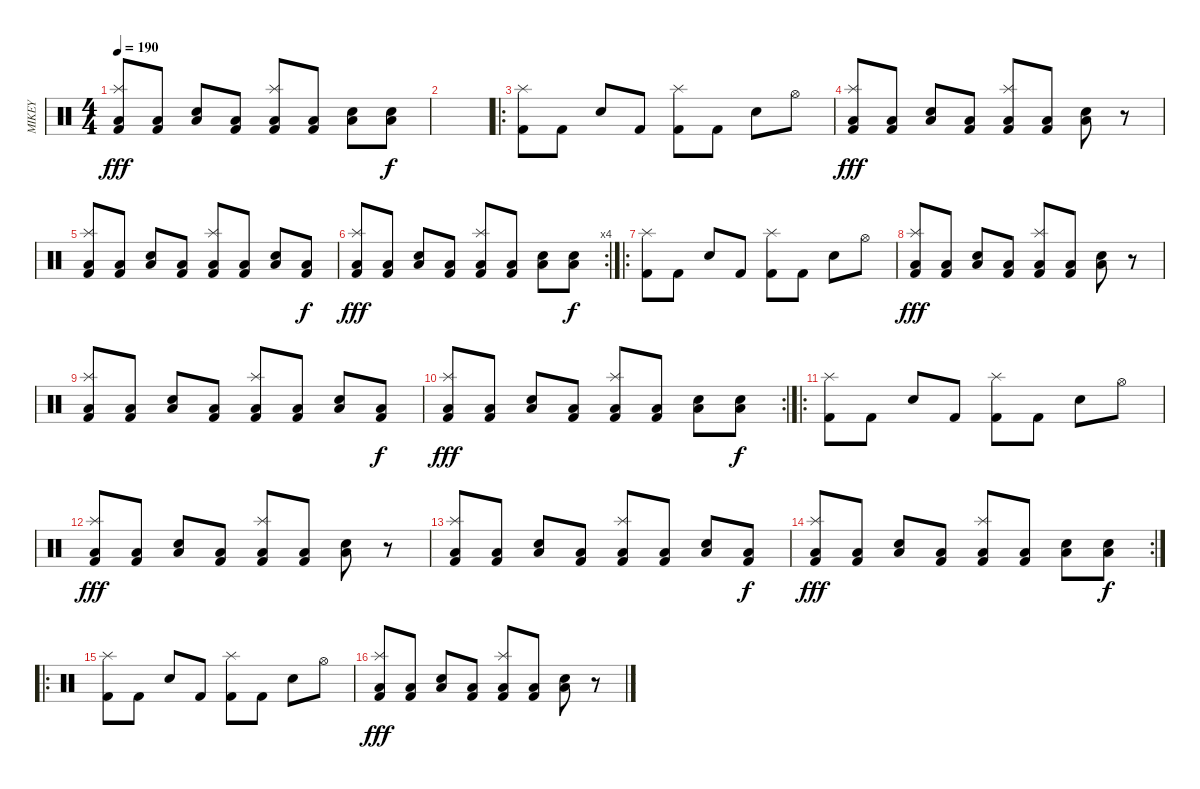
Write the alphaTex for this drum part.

\track ("MIKEY" "MIKEY") {instrument percussion}
\staff {score}
\articulation defaults
\ts (4 4)
\tempo 190
\clef neutral
\ks c
("Low Floor Tom (hit)" "Splash (hit)" "Kick (hit) 2").8{dy fff} ("Low Floor Tom (hit)" "Kick (hit) 2").8 ("Low Floor Tom (hit)" "Snare (hit) 2").8 ("Low Floor Tom (hit)" "Kick (hit) 2").8 ("Low Floor Tom (hit)" "Splash (hit)" "Kick (hit) 2").8 ("Low Floor Tom (hit)" "Kick (hit) 2").8 ("Low Floor Tom (hit)" "Snare (hit) 2").8 ("Low Floor Tom (hit)" "Snare (hit) 2").8{dy f} |
|
\ro
("Splash (hit)" "Kick (hit) 2").8 "Kick (hit) 2".8 "Snare (hit) 2".8 "Kick (hit) 2".8 ("Splash (hit)" "Kick (hit) 2").8 "Kick (hit) 2".8 "Snare (hit) 2".8 "Hi-Hat (open)".8 |
("Low Floor Tom (hit)" "Splash (hit)" "Kick (hit) 2").8{dy fff} ("Low Floor Tom (hit)" "Kick (hit) 2").8 ("Low Floor Tom (hit)" "Snare (hit) 2").8 ("Low Floor Tom (hit)" "Kick (hit) 2").8 ("Low Floor Tom (hit)" "Splash (hit)" "Kick (hit) 2").8 ("Low Floor Tom (hit)" "Kick (hit) 2").8 ("Low Floor Tom (hit)" "Snare (hit) 2").8 r.8 |
("Low Floor Tom (hit)" "Splash (hit)" "Kick (hit) 2").8 ("Low Floor Tom (hit)" "Kick (hit) 2").8 ("Low Floor Tom (hit)" "Snare (hit) 2").8 ("Low Floor Tom (hit)" "Kick (hit) 2").8 ("Low Floor Tom (hit)" "Splash (hit)" "Kick (hit) 2").8 ("Low Floor Tom (hit)" "Kick (hit) 2").8 ("Low Floor Tom (hit)" "Snare (hit) 2").8 ("Low Floor Tom (hit)" "Kick (hit) 2").8{dy f} |
\rc 4
("Low Floor Tom (hit)" "Splash (hit)" "Kick (hit) 2").8{dy fff} ("Low Floor Tom (hit)" "Kick (hit) 2").8 ("Low Floor Tom (hit)" "Snare (hit) 2").8 ("Low Floor Tom (hit)" "Kick (hit) 2").8 ("Low Floor Tom (hit)" "Splash (hit)" "Kick (hit) 2").8 ("Low Floor Tom (hit)" "Kick (hit) 2").8 ("Low Floor Tom (hit)" "Snare (hit) 2").8 ("Low Floor Tom (hit)" "Snare (hit) 2").8{dy f} |
\ro
("Splash (hit)" "Kick (hit) 2").8 "Kick (hit) 2".8 "Snare (hit) 2".8 "Kick (hit) 2".8 ("Splash (hit)" "Kick (hit) 2").8 "Kick (hit) 2".8 "Snare (hit) 2".8 "Hi-Hat (open)".8 |
("Low Floor Tom (hit)" "Splash (hit)" "Kick (hit) 2").8{dy fff} ("Low Floor Tom (hit)" "Kick (hit) 2").8 ("Low Floor Tom (hit)" "Snare (hit) 2").8 ("Low Floor Tom (hit)" "Kick (hit) 2").8 ("Low Floor Tom (hit)" "Splash (hit)" "Kick (hit) 2").8 ("Low Floor Tom (hit)" "Kick (hit) 2").8 ("Low Floor Tom (hit)" "Snare (hit) 2").8 r.8 |
("Low Floor Tom (hit)" "Splash (hit)" "Kick (hit) 2").8 ("Low Floor Tom (hit)" "Kick (hit) 2").8 ("Low Floor Tom (hit)" "Snare (hit) 2").8 ("Low Floor Tom (hit)" "Kick (hit) 2").8 ("Low Floor Tom (hit)" "Splash (hit)" "Kick (hit) 2").8 ("Low Floor Tom (hit)" "Kick (hit) 2").8 ("Low Floor Tom (hit)" "Snare (hit) 2").8 ("Low Floor Tom (hit)" "Kick (hit) 2").8{dy f} |
\rc 2
("Low Floor Tom (hit)" "Splash (hit)" "Kick (hit) 2").8{dy fff} ("Low Floor Tom (hit)" "Kick (hit) 2").8 ("Low Floor Tom (hit)" "Snare (hit) 2").8 ("Low Floor Tom (hit)" "Kick (hit) 2").8 ("Low Floor Tom (hit)" "Splash (hit)" "Kick (hit) 2").8 ("Low Floor Tom (hit)" "Kick (hit) 2").8 ("Low Floor Tom (hit)" "Snare (hit) 2").8 ("Low Floor Tom (hit)" "Snare (hit) 2").8{dy f} |
\ro
("Splash (hit)" "Kick (hit) 2").8 "Kick (hit) 2".8 "Snare (hit) 2".8 "Kick (hit) 2".8 ("Splash (hit)" "Kick (hit) 2").8 "Kick (hit) 2".8 "Snare (hit) 2".8 "Hi-Hat (open)".8 |
("Low Floor Tom (hit)" "Splash (hit)" "Kick (hit) 2").8{dy fff} ("Low Floor Tom (hit)" "Kick (hit) 2").8 ("Low Floor Tom (hit)" "Snare (hit) 2").8 ("Low Floor Tom (hit)" "Kick (hit) 2").8 ("Low Floor Tom (hit)" "Splash (hit)" "Kick (hit) 2").8 ("Low Floor Tom (hit)" "Kick (hit) 2").8 ("Low Floor Tom (hit)" "Snare (hit) 2").8 r.8 |
("Low Floor Tom (hit)" "Splash (hit)" "Kick (hit) 2").8 ("Low Floor Tom (hit)" "Kick (hit) 2").8 ("Low Floor Tom (hit)" "Snare (hit) 2").8 ("Low Floor Tom (hit)" "Kick (hit) 2").8 ("Low Floor Tom (hit)" "Splash (hit)" "Kick (hit) 2").8 ("Low Floor Tom (hit)" "Kick (hit) 2").8 ("Low Floor Tom (hit)" "Snare (hit) 2").8 ("Low Floor Tom (hit)" "Kick (hit) 2").8{dy f} |
\rc 2
("Low Floor Tom (hit)" "Splash (hit)" "Kick (hit) 2").8{dy fff} ("Low Floor Tom (hit)" "Kick (hit) 2").8 ("Low Floor Tom (hit)" "Snare (hit) 2").8 ("Low Floor Tom (hit)" "Kick (hit) 2").8 ("Low Floor Tom (hit)" "Splash (hit)" "Kick (hit) 2").8 ("Low Floor Tom (hit)" "Kick (hit) 2").8 ("Low Floor Tom (hit)" "Snare (hit) 2").8 ("Low Floor Tom (hit)" "Snare (hit) 2").8{dy f} |
\ro
("Splash (hit)" "Kick (hit) 2").8 "Kick (hit) 2".8 "Snare (hit) 2".8 "Kick (hit) 2".8 ("Splash (hit)" "Kick (hit) 2").8 "Kick (hit) 2".8 "Snare (hit) 2".8 "Hi-Hat (open)".8 |
("Low Floor Tom (hit)" "Splash (hit)" "Kick (hit) 2").8{dy fff} ("Low Floor Tom (hit)" "Kick (hit) 2").8 ("Low Floor Tom (hit)" "Snare (hit) 2").8 ("Low Floor Tom (hit)" "Kick (hit) 2").8 ("Low Floor Tom (hit)" "Splash (hit)" "Kick (hit) 2").8 ("Low Floor Tom (hit)" "Kick (hit) 2").8 ("Low Floor Tom (hit)" "Snare (hit) 2").8 r.8
